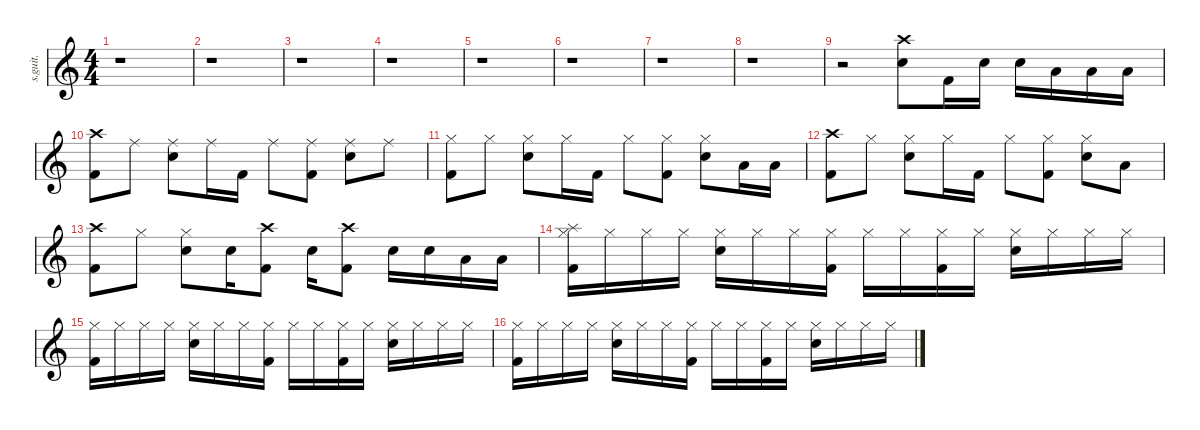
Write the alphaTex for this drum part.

\defaultSystemsLayout 4
\hideDynamics
\bracketExtendMode nobrackets
\track ("" "s.guit.") {instrument percussion}
\staff {score}
\articulation defaults
\ts (4 4)
\beaming (8 2 2 2 2)
\tempo (82 hide)
\clef g2
\ks c
r.1{dy f} |
r.1 |
r.1 |
r.1 |
r.1 |
r.1 |
r.1 |
r.1 |
r.2 ("Crash high (hit)" "Snare (hit) 2").8 "Kick (hit) 2".16 "Snare (hit) 2".16 "Snare (hit) 2".16 "Low Tom (hit)".16 "Low Tom (hit)".16 "Low Floor Tom (hit)".16 |
("Crash high (hit)" "Kick (hit) 2").8 "Ride (middle)".8 ("Ride (middle)" "Snare (hit) 2").8 "Ride (middle)".16 "Kick (hit) 2".16 "Ride (middle)".8 ("Ride (middle)" "Kick (hit) 2").8 ("Ride (middle)" "Snare (hit) 2").8 "Ride (middle)".8 |
("Hi-Hat (closed)" "Kick (hit) 2").8 "Hi-Hat (closed)".8 ("Hi-Hat (closed)" "Snare (hit) 2").8 "Hi-Hat (closed)".16 "Kick (hit) 2".16 "Hi-Hat (closed)".8 ("Hi-Hat (closed)" "Kick (hit) 2").8 ("Hi-Hat (closed)" "Snare (hit) 2").8 "Low Tom (hit)".16 "Low Tom (hit)".16 |
("Crash high (hit)" "Kick (hit) 2").8 "Hi-Hat (closed)".8 ("Hi-Hat (closed)" "Snare (hit) 2").8 "Hi-Hat (closed)".16 "Kick (hit) 2".16 "Hi-Hat (closed)".8 ("Hi-Hat (closed)" "Kick (hit) 2").8 ("Hi-Hat (closed)" "Snare (hit) 2").8 "Low Tom (hit)".8 |
("Crash high (hit)" "Kick (hit) 2").8 "Hi-Hat (closed)".8 ("Hi-Hat (closed)" "Snare (hit) 2").8 "Snare (hit) 2".16 ("Crash high (hit)" "Kick (hit) 2").8 "Snare (hit) 2".16 ("Crash high (hit)" "Kick (hit) 2").8 "Snare (hit) 2".16 "Snare (hit) 2".16 "Low Tom (hit)".16 "Low Tom (hit)".16 |
("Splash (hit)" "Hi-Hat (closed)" "Kick (hit) 2").16 "Hi-Hat (closed)".16 "Hi-Hat (closed)".16 "Hi-Hat (closed)".16 ("Hi-Hat (closed)" "Snare (hit) 2").16 "Hi-Hat (closed)".16 "Hi-Hat (closed)".16 ("Hi-Hat (closed)" "Kick (hit) 2").16 "Hi-Hat (closed)".16 "Hi-Hat (closed)".16 ("Hi-Hat (closed)" "Kick (hit) 2").16 "Hi-Hat (closed)".16 ("Hi-Hat (closed)" "Snare (hit) 2").16 "Hi-Hat (closed)".16 "Hi-Hat (closed)".16 "Hi-Hat (closed)".16 |
("Hi-Hat (closed)" "Kick (hit) 2").16 "Hi-Hat (closed)".16 "Hi-Hat (closed)".16 "Hi-Hat (closed)".16 ("Hi-Hat (closed)" "Snare (hit) 2").16 "Hi-Hat (closed)".16 "Hi-Hat (closed)".16 ("Hi-Hat (closed)" "Kick (hit) 2").16 "Hi-Hat (closed)".16 "Hi-Hat (closed)".16 ("Hi-Hat (closed)" "Kick (hit) 2").16 "Hi-Hat (closed)".16 ("Hi-Hat (closed)" "Snare (hit) 2").16 "Hi-Hat (closed)".16 "Hi-Hat (closed)".16 "Hi-Hat (closed)".16 |
("Hi-Hat (closed)" "Kick (hit) 2").16 "Hi-Hat (closed)".16 "Hi-Hat (closed)".16 "Hi-Hat (closed)".16 ("Hi-Hat (closed)" "Snare (hit) 2").16 "Hi-Hat (closed)".16 "Hi-Hat (closed)".16 ("Hi-Hat (closed)" "Kick (hit) 2").16 "Hi-Hat (closed)".16 "Hi-Hat (closed)".16 ("Hi-Hat (closed)" "Kick (hit) 2").16 "Hi-Hat (closed)".16 ("Hi-Hat (closed)" "Snare (hit) 2").16 "Hi-Hat (closed)".16 "Hi-Hat (closed)".16 "Hi-Hat (closed)".16
